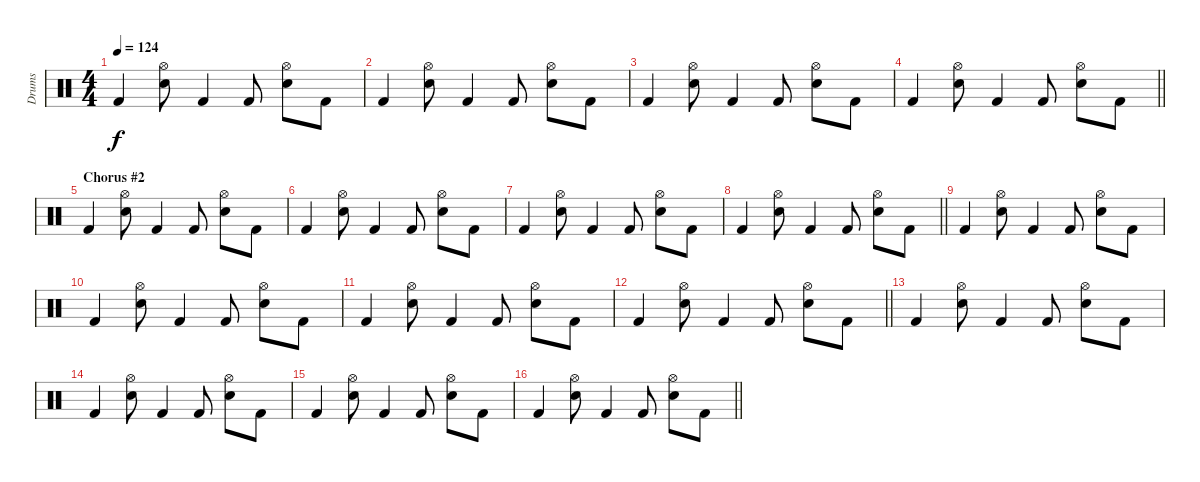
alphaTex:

\track ("Drums" "Drums") {instrument percussion}
\staff {score}
\articulation defaults
\ts (4 4)
\tempo 124
\clef neutral
\ks c "Kick (hit) 2".4{dy f}
("Hi-Hat (open)" "Snare (hit) 2").8 "Kick (hit) 2".4 "Kick (hit) 2".8 ("Hi-Hat (open)" "Snare (hit) 2").8 "Kick (hit) 2".8 |
"Kick (hit) 2".4 ("Hi-Hat (open)" "Snare (hit) 2").8 "Kick (hit) 2".4 "Kick (hit) 2".8 ("Hi-Hat (open)" "Snare (hit) 2").8 "Kick (hit) 2".8 |
"Kick (hit) 2".4 ("Hi-Hat (open)" "Snare (hit) 2").8 "Kick (hit) 2".4 "Kick (hit) 2".8 ("Hi-Hat (open)" "Snare (hit) 2").8 "Kick (hit) 2".8 |
\barLineRight lightlight "Kick (hit) 2".4
("Hi-Hat (open)" "Snare (hit) 2").8 "Kick (hit) 2".4 "Kick (hit) 2".8 ("Hi-Hat (open)" "Snare (hit) 2").8 "Kick (hit) 2".8 |
\section ("" "Chorus #2")
"Kick (hit) 2".4 ("Hi-Hat (open)" "Snare (hit) 2").8 "Kick (hit) 2".4 "Kick (hit) 2".8 ("Hi-Hat (open)" "Snare (hit) 2").8 "Kick (hit) 2".8 |
"Kick (hit) 2".4 ("Hi-Hat (open)" "Snare (hit) 2").8 "Kick (hit) 2".4 "Kick (hit) 2".8 ("Hi-Hat (open)" "Snare (hit) 2").8 "Kick (hit) 2".8 |
"Kick (hit) 2".4 ("Hi-Hat (open)" "Snare (hit) 2").8 "Kick (hit) 2".4 "Kick (hit) 2".8 ("Hi-Hat (open)" "Snare (hit) 2").8 "Kick (hit) 2".8 |
\barLineRight lightlight "Kick (hit) 2".4
("Hi-Hat (open)" "Snare (hit) 2").8 "Kick (hit) 2".4 "Kick (hit) 2".8 ("Hi-Hat (open)" "Snare (hit) 2").8 "Kick (hit) 2".8 |
"Kick (hit) 2".4 ("Hi-Hat (open)" "Snare (hit) 2").8 "Kick (hit) 2".4 "Kick (hit) 2".8 ("Hi-Hat (open)" "Snare (hit) 2").8 "Kick (hit) 2".8 |
"Kick (hit) 2".4 ("Hi-Hat (open)" "Snare (hit) 2").8 "Kick (hit) 2".4 "Kick (hit) 2".8 ("Hi-Hat (open)" "Snare (hit) 2").8 "Kick (hit) 2".8 |
"Kick (hit) 2".4 ("Hi-Hat (open)" "Snare (hit) 2").8 "Kick (hit) 2".4 "Kick (hit) 2".8 ("Hi-Hat (open)" "Snare (hit) 2").8 "Kick (hit) 2".8 |
\barLineRight lightlight "Kick (hit) 2".4
("Hi-Hat (open)" "Snare (hit) 2").8 "Kick (hit) 2".4 "Kick (hit) 2".8 ("Hi-Hat (open)" "Snare (hit) 2").8 "Kick (hit) 2".8 |
"Kick (hit) 2".4 ("Hi-Hat (open)" "Snare (hit) 2").8 "Kick (hit) 2".4 "Kick (hit) 2".8 ("Hi-Hat (open)" "Snare (hit) 2").8 "Kick (hit) 2".8 |
"Kick (hit) 2".4 ("Hi-Hat (open)" "Snare (hit) 2").8 "Kick (hit) 2".4 "Kick (hit) 2".8 ("Hi-Hat (open)" "Snare (hit) 2").8 "Kick (hit) 2".8 |
"Kick (hit) 2".4 ("Hi-Hat (open)" "Snare (hit) 2").8 "Kick (hit) 2".4 "Kick (hit) 2".8 ("Hi-Hat (open)" "Snare (hit) 2").8 "Kick (hit) 2".8 |
\barLineRight lightlight "Kick (hit) 2".4
("Hi-Hat (open)" "Snare (hit) 2").8 "Kick (hit) 2".4 "Kick (hit) 2".8 ("Hi-Hat (open)" "Snare (hit) 2").8 "Kick (hit) 2".8
